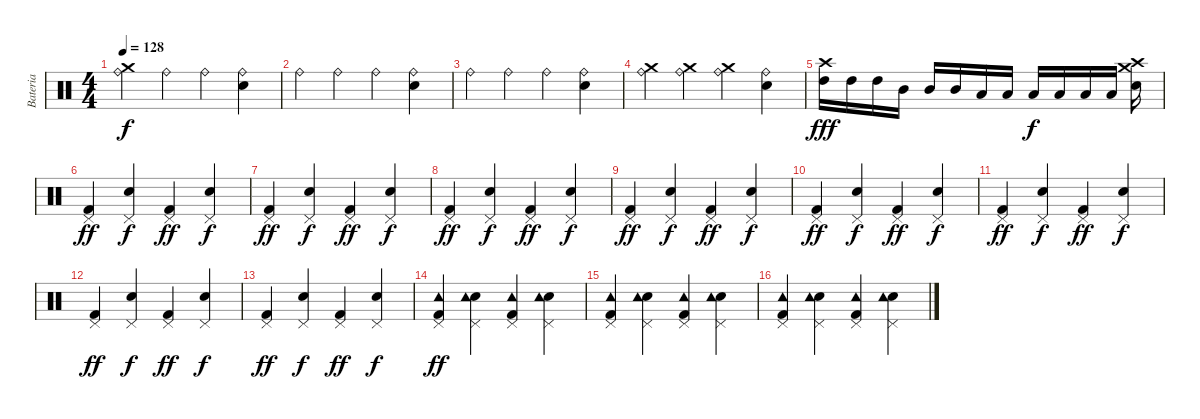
\track ("Bateria" "Bateria") {instrument percussion}
\staff {score}
\articulation defaults
\ts (4 4)
\tempo 128
\clef neutral
\ks c
("Ride (bell)" "Crash medium (hit)").4{dy f} "Ride (bell)".4 "Ride (bell)".4 ("Ride (bell)" "Electric Snare (hit)").4 |
"Ride (bell)".4 "Ride (bell)".4 "Ride (bell)".4 ("Ride (bell)" "Electric Snare (hit)").4 |
"Ride (bell)".4 "Ride (bell)".4 "Ride (bell)".4 ("Ride (bell)" "Electric Snare (hit)").4 |
("Ride (bell)" "Crash medium (hit)").4 ("Ride (bell)" "Crash medium (hit)").4 ("Ride (bell)" "Crash medium (hit)").4 ("Ride (bell)" "Electric Snare (hit)").4 |
("High Tom (hit)" "Crash high (hit)").16{dy fff} "High Tom (hit)".16 "High Tom (hit)".16 "Mid Tom (hit)".16 "Mid Tom (hit)".16 "Mid Tom (hit)".16 "Low Tom (hit)".16 "Low Tom (hit)".16 "Low Tom (hit)".16{dy f} "Low Tom (hit)".16 "Low Tom (hit)".16 "Low Floor Tom (hit)".16 ("Crash high (hit)" "Electric Snare (hit)" "Crash medium (hit)").16 |
("Pedal Hi-Hat (hit)" "Kick (hit) 2").4{dy ff} ("Pedal Hi-Hat (hit)" "Electric Snare (hit)").4{dy f} ("Pedal Hi-Hat (hit)" "Kick (hit) 2").4{dy ff} ("Pedal Hi-Hat (hit)" "Electric Snare (hit)").4{dy f} |
("Pedal Hi-Hat (hit)" "Kick (hit) 2").4{dy ff} ("Pedal Hi-Hat (hit)" "Electric Snare (hit)").4{dy f} ("Pedal Hi-Hat (hit)" "Kick (hit) 2").4{dy ff} ("Pedal Hi-Hat (hit)" "Electric Snare (hit)").4{dy f} |
("Pedal Hi-Hat (hit)" "Kick (hit) 2").4{dy ff} ("Pedal Hi-Hat (hit)" "Electric Snare (hit)").4{dy f} ("Pedal Hi-Hat (hit)" "Kick (hit) 2").4{dy ff} ("Pedal Hi-Hat (hit)" "Electric Snare (hit)").4{dy f} |
("Pedal Hi-Hat (hit)" "Kick (hit) 2").4{dy ff} ("Pedal Hi-Hat (hit)" "Electric Snare (hit)").4{dy f} ("Pedal Hi-Hat (hit)" "Kick (hit) 2").4{dy ff} ("Pedal Hi-Hat (hit)" "Electric Snare (hit)").4{dy f} |
("Pedal Hi-Hat (hit)" "Kick (hit) 2").4{dy ff} ("Pedal Hi-Hat (hit)" "Electric Snare (hit)").4{dy f} ("Pedal Hi-Hat (hit)" "Kick (hit) 2").4{dy ff} ("Pedal Hi-Hat (hit)" "Electric Snare (hit)").4{dy f} |
("Pedal Hi-Hat (hit)" "Kick (hit) 2").4{dy ff} ("Pedal Hi-Hat (hit)" "Electric Snare (hit)").4{dy f} ("Pedal Hi-Hat (hit)" "Kick (hit) 2").4{dy ff} ("Pedal Hi-Hat (hit)" "Electric Snare (hit)").4{dy f} |
("Pedal Hi-Hat (hit)" "Kick (hit) 2").4{dy ff} ("Pedal Hi-Hat (hit)" "Electric Snare (hit)").4{dy f} ("Pedal Hi-Hat (hit)" "Kick (hit) 2").4{dy ff} ("Pedal Hi-Hat (hit)" "Electric Snare (hit)").4{dy f} |
("Pedal Hi-Hat (hit)" "Kick (hit) 2").4{dy ff} ("Pedal Hi-Hat (hit)" "Electric Snare (hit)").4{dy f} ("Pedal Hi-Hat (hit)" "Kick (hit) 2").4{dy ff} ("Pedal Hi-Hat (hit)" "Electric Snare (hit)").4{dy f} |
("Pedal Hi-Hat (hit)" "Kick (hit) 2" "Tambourine (hit)").4{dy ff} ("Pedal Hi-Hat (hit)" "Electric Snare (hit)" "Tambourine (hit)").4 ("Pedal Hi-Hat (hit)" "Kick (hit) 2" "Tambourine (hit)").4 ("Pedal Hi-Hat (hit)" "Electric Snare (hit)" "Tambourine (hit)").4 |
("Pedal Hi-Hat (hit)" "Kick (hit) 2" "Tambourine (hit)").4 ("Pedal Hi-Hat (hit)" "Electric Snare (hit)" "Tambourine (hit)").4 ("Pedal Hi-Hat (hit)" "Kick (hit) 2" "Tambourine (hit)").4 ("Pedal Hi-Hat (hit)" "Electric Snare (hit)" "Tambourine (hit)").4 |
("Pedal Hi-Hat (hit)" "Kick (hit) 2" "Tambourine (hit)").4 ("Pedal Hi-Hat (hit)" "Electric Snare (hit)" "Tambourine (hit)").4 ("Pedal Hi-Hat (hit)" "Kick (hit) 2" "Tambourine (hit)").4 ("Pedal Hi-Hat (hit)" "Electric Snare (hit)" "Tambourine (hit)").4
